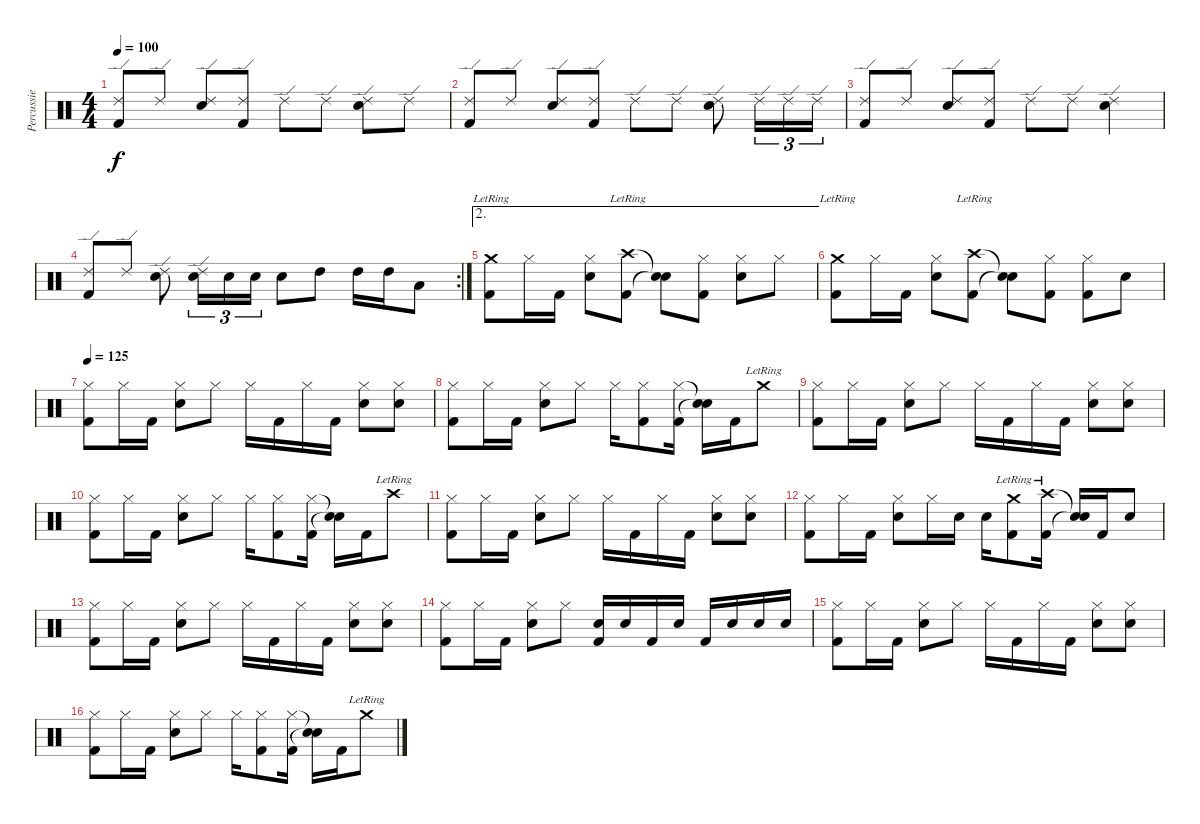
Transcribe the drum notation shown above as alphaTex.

\track ("Percussie" "Percussie") {instrument percussion}
\staff {score}
\articulation defaults
\ts (4 4)
\tempo 100
\clef neutral
\ks c
("Ride (edge) 2" "Kick (hit) 2").8{dy f} "Ride (edge) 2".8 ("Ride (edge) 2" "Snare (hit) 2").8 ("Ride (edge) 2" "Kick (hit) 2").8 "Ride (edge) 2".8 "Ride (edge) 2".8 ("Ride (edge) 2" "Snare (hit) 2").8 "Ride (edge) 2".8 |
("Ride (edge) 2" "Kick (hit) 2").8 "Ride (edge) 2".8 ("Ride (edge) 2" "Snare (hit) 2").8 ("Ride (edge) 2" "Kick (hit) 2").8 "Ride (edge) 2".8 "Ride (edge) 2".8 ("Ride (edge) 2" "Snare (hit) 2").8 "Ride (edge) 2".16{tu (3 2)} "Ride (edge) 2".16{tu (3 2)} "Ride (edge) 2".16{tu (3 2)} |
("Ride (edge) 2" "Kick (hit) 2").8 "Ride (edge) 2".8 ("Ride (edge) 2" "Snare (hit) 2").8 ("Ride (edge) 2" "Kick (hit) 2").8 "Ride (edge) 2".8 "Ride (edge) 2".8 ("Ride (edge) 2" "Snare (hit) 2").4 |
\rc 2
("Ride (edge) 2" "Kick (hit) 2").8 "Ride (edge) 2".8 ("Ride (edge) 2" "Snare (hit) 2").8 ("Ride (edge) 2" "Snare (hit) 2").16{tu (3 2)} "Snare (hit) 2".16{tu (3 2)} "Snare (hit) 2".16{tu (3 2)} "Snare (hit) 2".8 "High Tom (hit)".8 "High Tom (hit)".16 "High Tom (hit)".16 "Low Tom (hit)".8 |
\ae 2
("Crash medium (hit)"{lr} "Kick (hit) 2").8 "Hi-Hat (closed)".16 "Kick (hit) 2".16 ("Hi-Hat (closed)" "Snare (hit) 2").8 ("Crash high (hit)"{lr} "Kick (hit) 2").8 ("Snare (hit)"{t} "Snare (hit)"{t}).8 ("Hi-Hat (closed)" "Kick (hit) 2").8 ("Hi-Hat (closed)" "Snare (hit) 2").8 "Hi-Hat (closed)".8 |
("Crash medium (hit)"{lr} "Kick (hit) 2").8 "Hi-Hat (closed)".16 "Kick (hit) 2".16 ("Hi-Hat (closed)" "Snare (hit) 2").8 ("Crash high (hit)"{lr} "Kick (hit) 2").8 ("Snare (hit)"{t} "Snare (hit)"{t}).8 ("Hi-Hat (closed)" "Kick (hit) 2").8 ("Hi-Hat (closed)" "Kick (hit) 2").8 "Snare (hit) 2".8 |
\tempo 125
("Hi-Hat (closed)" "Kick (hit) 2").8 "Hi-Hat (closed)".16 "Kick (hit) 2".16 ("Hi-Hat (closed)" "Snare (hit) 2").8 "Hi-Hat (closed)".8 "Hi-Hat (closed)".16 "Kick (hit) 2".16 "Hi-Hat (closed)".16 "Kick (hit) 2".16 ("Hi-Hat (closed)" "Snare (hit) 2").8 ("Hi-Hat (closed)" "Snare (hit) 2").8 |
("Hi-Hat (closed)" "Kick (hit) 2").8 "Hi-Hat (closed)".16 "Kick (hit) 2".16 ("Hi-Hat (closed)" "Snare (hit) 2").8 "Hi-Hat (closed)".8 "Hi-Hat (closed)".16 ("Hi-Hat (closed)" "Kick (hit) 2").8 ("Hi-Hat (closed)" "Kick (hit) 2").16 ("Snare (hit)"{t} "Snare (hit)"{t}).16 "Kick (hit) 2".16 "Crash medium (hit)"{lr}.8 |
("Hi-Hat (closed)" "Kick (hit) 2").8 "Hi-Hat (closed)".16 "Kick (hit) 2".16 ("Hi-Hat (closed)" "Snare (hit) 2").8 "Hi-Hat (closed)".8 "Hi-Hat (closed)".16 "Kick (hit) 2".16 "Hi-Hat (closed)".16 "Kick (hit) 2".16 ("Hi-Hat (closed)" "Snare (hit) 2").8 ("Hi-Hat (closed)" "Snare (hit) 2").8 |
("Hi-Hat (closed)" "Kick (hit) 2").8 "Hi-Hat (closed)".16 "Kick (hit) 2".16 ("Hi-Hat (closed)" "Snare (hit) 2").8 "Hi-Hat (closed)".8 "Hi-Hat (closed)".16 ("Hi-Hat (closed)" "Kick (hit) 2").8 ("Hi-Hat (closed)" "Kick (hit) 2").16 ("Snare (hit)"{t} "Snare (hit)"{t}).16 "Kick (hit) 2".16 "Crash high (hit)"{lr}.8 |
("Hi-Hat (closed)" "Kick (hit) 2").8 "Hi-Hat (closed)".16 "Kick (hit) 2".16 ("Hi-Hat (closed)" "Snare (hit) 2").8 "Hi-Hat (closed)".8 "Hi-Hat (closed)".16 "Kick (hit) 2".16 "Hi-Hat (closed)".16 "Kick (hit) 2".16 ("Hi-Hat (closed)" "Snare (hit) 2").8 ("Hi-Hat (closed)" "Snare (hit) 2").8 |
("Hi-Hat (closed)" "Kick (hit) 2").8 "Hi-Hat (closed)".16 "Kick (hit) 2".16 ("Hi-Hat (closed)" "Snare (hit) 2").8 "Hi-Hat (closed)".16 "Snare (hit) 2".16 "Snare (hit) 2".16 ("Crash medium (hit)"{lr} "Kick (hit) 2").8 ("Crash high (hit)"{lr} "Kick (hit) 2").16 ("Snare (hit)"{t} "Snare (hit)"{t}).16 "Kick (hit) 2".16 "Snare (hit) 2".8 |
("Hi-Hat (closed)" "Kick (hit) 2").8 "Hi-Hat (closed)".16 "Kick (hit) 2".16 ("Hi-Hat (closed)" "Snare (hit) 2").8 "Hi-Hat (closed)".8 "Hi-Hat (closed)".16 "Kick (hit) 2".16 "Hi-Hat (closed)".16 "Kick (hit) 2".16 ("Hi-Hat (closed)" "Snare (hit) 2").8 ("Hi-Hat (closed)" "Snare (hit) 2").8 |
("Hi-Hat (closed)" "Kick (hit) 2").8 "Hi-Hat (closed)".16 "Kick (hit) 2".16 ("Hi-Hat (closed)" "Snare (hit) 2").8 "Hi-Hat (closed)".8 ("Snare (hit) 2" "Kick (hit) 2").16 "Snare (hit) 2".16 "Kick (hit) 2".16 "Snare (hit) 2".16 "Kick (hit) 2".16 "Snare (hit) 2".16 "Snare (hit) 2".16 "Snare (hit) 2".16 |
("Hi-Hat (closed)" "Kick (hit) 2").8 "Hi-Hat (closed)".16 "Kick (hit) 2".16 ("Hi-Hat (closed)" "Snare (hit) 2").8 "Hi-Hat (closed)".8 "Hi-Hat (closed)".16 "Kick (hit) 2".16 "Hi-Hat (closed)".16 "Kick (hit) 2".16 ("Hi-Hat (closed)" "Snare (hit) 2").8 ("Hi-Hat (closed)" "Snare (hit) 2").8 |
("Hi-Hat (closed)" "Kick (hit) 2").8 "Hi-Hat (closed)".16 "Kick (hit) 2".16 ("Hi-Hat (closed)" "Snare (hit) 2").8 "Hi-Hat (closed)".8 "Hi-Hat (closed)".16 ("Hi-Hat (closed)" "Kick (hit) 2").8 ("Hi-Hat (closed)" "Kick (hit) 2").16 ("Snare (hit)"{t} "Snare (hit)"{t}).16 "Kick (hit) 2".16 "Crash medium (hit)"{lr}.8
